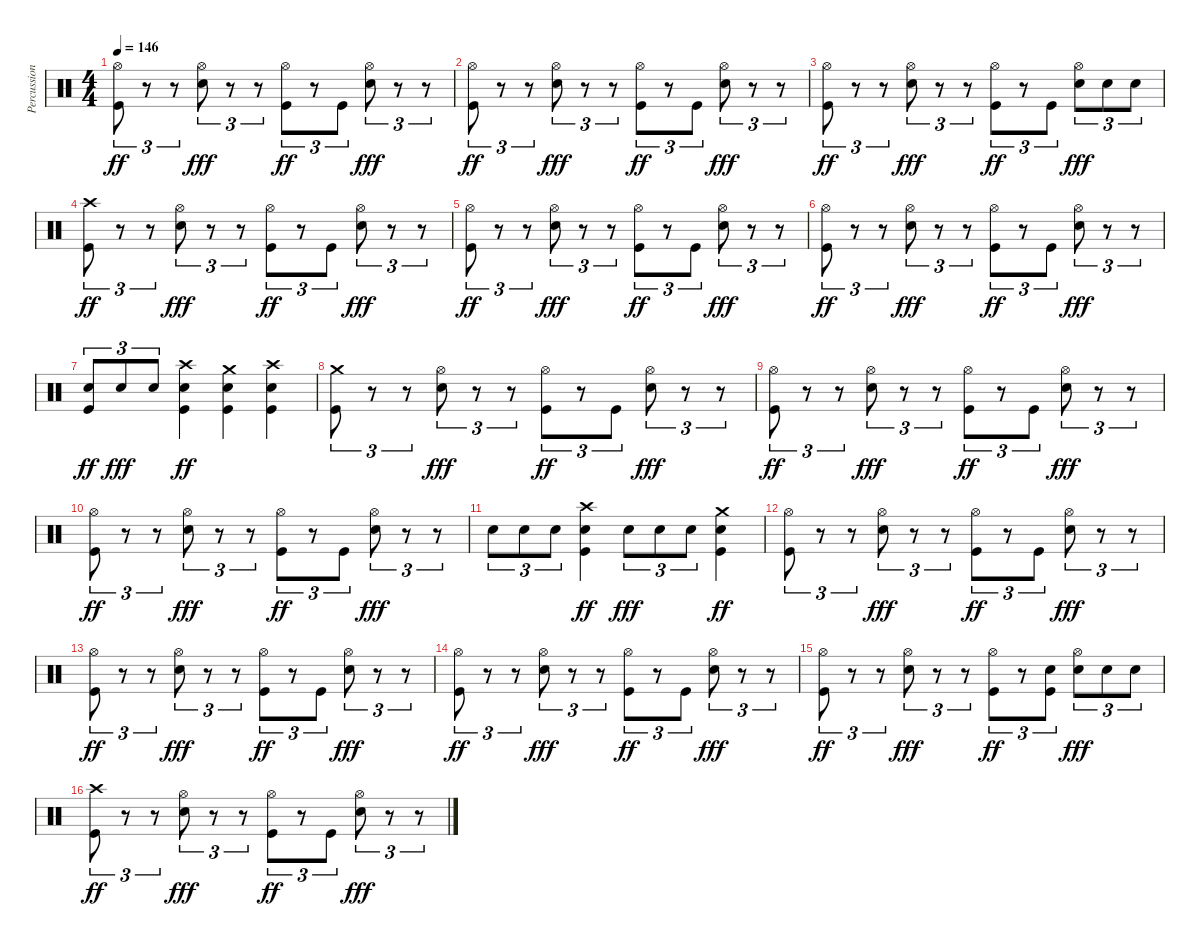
\track ("Percussion" "Percussion") {instrument percussion}
\staff {score}
\articulation defaults
\ts (4 4)
\tempo 146
\clef neutral
\ks c
("Hi-Hat (open)" "Kick (hit)").8{tu (3 2) dy ff} r.8{tu (3 2)} r.8{tu (3 2)} ("Hi-Hat (open)" "Snare (hit) 2").8{tu (3 2) dy fff} r.8{tu (3 2)} r.8{tu (3 2)} ("Hi-Hat (open)" "Kick (hit)").8{tu (3 2) dy ff} r.8{tu (3 2)} "Kick (hit)".8{tu (3 2)} ("Hi-Hat (open)" "Snare (hit) 2").8{tu (3 2) dy fff} r.8{tu (3 2)} r.8{tu (3 2)} |
("Hi-Hat (open)" "Kick (hit)").8{tu (3 2) dy ff} r.8{tu (3 2)} r.8{tu (3 2)} ("Hi-Hat (open)" "Snare (hit) 2").8{tu (3 2) dy fff} r.8{tu (3 2)} r.8{tu (3 2)} ("Hi-Hat (open)" "Kick (hit)").8{tu (3 2) dy ff} r.8{tu (3 2)} "Kick (hit)".8{tu (3 2)} ("Hi-Hat (open)" "Snare (hit) 2").8{tu (3 2) dy fff} r.8{tu (3 2)} r.8{tu (3 2)} |
("Hi-Hat (open)" "Kick (hit)").8{tu (3 2) dy ff} r.8{tu (3 2)} r.8{tu (3 2)} ("Hi-Hat (open)" "Snare (hit) 2").8{tu (3 2) dy fff} r.8{tu (3 2)} r.8{tu (3 2)} ("Hi-Hat (open)" "Kick (hit)").8{tu (3 2) dy ff} r.8{tu (3 2)} "Kick (hit)".8{tu (3 2)} ("Hi-Hat (open)" "Snare (hit) 2").8{tu (3 2) dy fff} "Snare (hit) 2".8{tu (3 2)} "Snare (hit) 2".8{tu (3 2)} |
("Crash high (hit)" "Kick (hit)").8{tu (3 2) dy ff} r.8{tu (3 2)} r.8{tu (3 2)} ("Hi-Hat (open)" "Snare (hit) 2").8{tu (3 2) dy fff} r.8{tu (3 2)} r.8{tu (3 2)} ("Hi-Hat (open)" "Kick (hit)").8{tu (3 2) dy ff} r.8{tu (3 2)} "Kick (hit)".8{tu (3 2)} ("Hi-Hat (open)" "Snare (hit) 2").8{tu (3 2) dy fff} r.8{tu (3 2)} r.8{tu (3 2)} |
("Hi-Hat (open)" "Kick (hit)").8{tu (3 2) dy ff} r.8{tu (3 2)} r.8{tu (3 2)} ("Hi-Hat (open)" "Snare (hit) 2").8{tu (3 2) dy fff} r.8{tu (3 2)} r.8{tu (3 2)} ("Hi-Hat (open)" "Kick (hit)").8{tu (3 2) dy ff} r.8{tu (3 2)} "Kick (hit)".8{tu (3 2)} ("Hi-Hat (open)" "Snare (hit) 2").8{tu (3 2) dy fff} r.8{tu (3 2)} r.8{tu (3 2)} |
("Hi-Hat (open)" "Kick (hit)").8{tu (3 2) dy ff} r.8{tu (3 2)} r.8{tu (3 2)} ("Hi-Hat (open)" "Snare (hit) 2").8{tu (3 2) dy fff} r.8{tu (3 2)} r.8{tu (3 2)} ("Hi-Hat (open)" "Kick (hit)").8{tu (3 2) dy ff} r.8{tu (3 2)} "Kick (hit)".8{tu (3 2)} ("Hi-Hat (open)" "Snare (hit) 2").8{tu (3 2) dy fff} r.8{tu (3 2)} r.8{tu (3 2)} |
("Snare (hit) 2" "Kick (hit)").8{tu (3 2) dy ff} "Snare (hit) 2".8{tu (3 2) dy fff} "Snare (hit) 2".8{tu (3 2)} ("Crash high (hit)" "Snare (hit) 2" "Kick (hit)").4{dy ff} ("Crash medium (hit)" "Snare (hit) 2" "Kick (hit)").4 ("Crash high (hit)" "Snare (hit) 2" "Kick (hit)").4 |
("Crash medium (hit)" "Kick (hit)").8{tu (3 2)} r.8{tu (3 2)} r.8{tu (3 2)} ("Hi-Hat (open)" "Snare (hit) 2").8{tu (3 2) dy fff} r.8{tu (3 2)} r.8{tu (3 2)} ("Hi-Hat (open)" "Kick (hit)").8{tu (3 2) dy ff} r.8{tu (3 2)} "Kick (hit)".8{tu (3 2)} ("Hi-Hat (open)" "Snare (hit) 2").8{tu (3 2) dy fff} r.8{tu (3 2)} r.8{tu (3 2)} |
("Hi-Hat (open)" "Kick (hit)").8{tu (3 2) dy ff} r.8{tu (3 2)} r.8{tu (3 2)} ("Hi-Hat (open)" "Snare (hit) 2").8{tu (3 2) dy fff} r.8{tu (3 2)} r.8{tu (3 2)} ("Hi-Hat (open)" "Kick (hit)").8{tu (3 2) dy ff} r.8{tu (3 2)} "Kick (hit)".8{tu (3 2)} ("Hi-Hat (open)" "Snare (hit) 2").8{tu (3 2) dy fff} r.8{tu (3 2)} r.8{tu (3 2)} |
("Hi-Hat (open)" "Kick (hit)").8{tu (3 2) dy ff} r.8{tu (3 2)} r.8{tu (3 2)} ("Hi-Hat (open)" "Snare (hit) 2").8{tu (3 2) dy fff} r.8{tu (3 2)} r.8{tu (3 2)} ("Hi-Hat (open)" "Kick (hit)").8{tu (3 2) dy ff} r.8{tu (3 2)} "Kick (hit)".8{tu (3 2)} ("Hi-Hat (open)" "Snare (hit) 2").8{tu (3 2) dy fff} r.8{tu (3 2)} r.8{tu (3 2)} |
"Snare (hit) 2".8{tu (3 2)} "Snare (hit) 2".8{tu (3 2)} "Snare (hit) 2".8{tu (3 2)} ("Crash high (hit)" "Snare (hit) 2" "Kick (hit)").4{dy ff} "Snare (hit) 2".8{tu (3 2) dy fff} "Snare (hit) 2".8{tu (3 2)} "Snare (hit) 2".8{tu (3 2)} ("Crash medium (hit)" "Snare (hit) 2" "Kick (hit)").4{dy ff} |
("Hi-Hat (open)" "Kick (hit)").8{tu (3 2)} r.8{tu (3 2)} r.8{tu (3 2)} ("Hi-Hat (open)" "Snare (hit) 2").8{tu (3 2) dy fff} r.8{tu (3 2)} r.8{tu (3 2)} ("Hi-Hat (open)" "Kick (hit)").8{tu (3 2) dy ff} r.8{tu (3 2)} "Kick (hit)".8{tu (3 2)} ("Hi-Hat (open)" "Snare (hit) 2").8{tu (3 2) dy fff} r.8{tu (3 2)} r.8{tu (3 2)} |
("Hi-Hat (open)" "Kick (hit)").8{tu (3 2) dy ff} r.8{tu (3 2)} r.8{tu (3 2)} ("Hi-Hat (open)" "Snare (hit) 2").8{tu (3 2) dy fff} r.8{tu (3 2)} r.8{tu (3 2)} ("Hi-Hat (open)" "Kick (hit)").8{tu (3 2) dy ff} r.8{tu (3 2)} "Kick (hit)".8{tu (3 2)} ("Hi-Hat (open)" "Snare (hit) 2").8{tu (3 2) dy fff} r.8{tu (3 2)} r.8{tu (3 2)} |
("Hi-Hat (open)" "Kick (hit)").8{tu (3 2) dy ff} r.8{tu (3 2)} r.8{tu (3 2)} ("Hi-Hat (open)" "Snare (hit) 2").8{tu (3 2) dy fff} r.8{tu (3 2)} r.8{tu (3 2)} ("Hi-Hat (open)" "Kick (hit)").8{tu (3 2) dy ff} r.8{tu (3 2)} "Kick (hit)".8{tu (3 2)} ("Hi-Hat (open)" "Snare (hit) 2").8{tu (3 2) dy fff} r.8{tu (3 2)} r.8{tu (3 2)} |
("Hi-Hat (open)" "Kick (hit)").8{tu (3 2) dy ff} r.8{tu (3 2)} r.8{tu (3 2)} ("Hi-Hat (open)" "Snare (hit) 2").8{tu (3 2) dy fff} r.8{tu (3 2)} r.8{tu (3 2)} ("Hi-Hat (open)" "Kick (hit)").8{tu (3 2) dy ff} r.8{tu (3 2)} ("Snare (hit) 2" "Kick (hit)").8{tu (3 2)} ("Hi-Hat (open)" "Snare (hit) 2").8{tu (3 2) dy fff} "Snare (hit) 2".8{tu (3 2)} "Snare (hit) 2".8{tu (3 2)} |
("Crash high (hit)" "Kick (hit)").8{tu (3 2) dy ff} r.8{tu (3 2)} r.8{tu (3 2)} ("Hi-Hat (open)" "Snare (hit) 2").8{tu (3 2) dy fff} r.8{tu (3 2)} r.8{tu (3 2)} ("Hi-Hat (open)" "Kick (hit)").8{tu (3 2) dy ff} r.8{tu (3 2)} "Kick (hit)".8{tu (3 2)} ("Hi-Hat (open)" "Snare (hit) 2").8{tu (3 2) dy fff} r.8{tu (3 2)} r.8{tu (3 2)}
